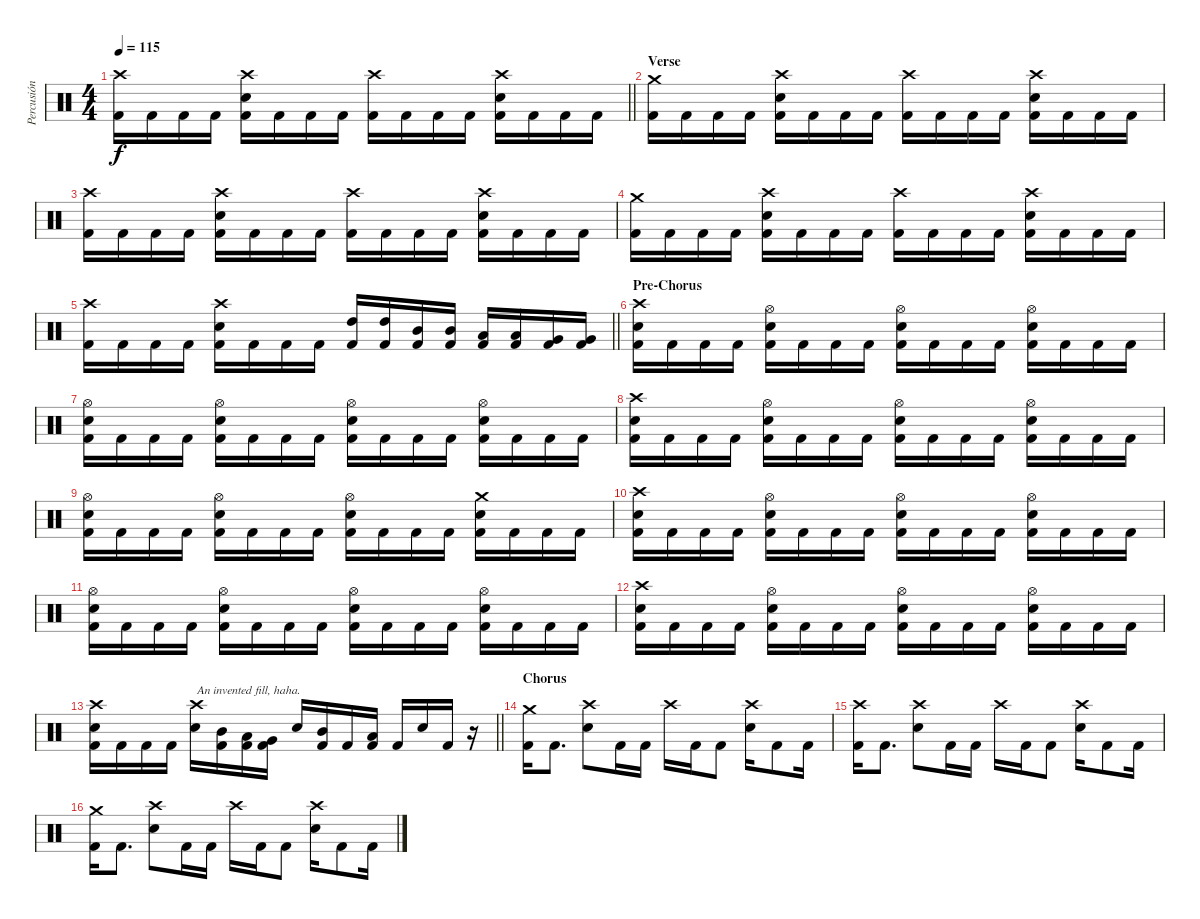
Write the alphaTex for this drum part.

\track ("Percusión" "Percusión") {instrument percussion}
\staff {score}
\articulation defaults
\ts (4 4)
\tempo 115
\clef neutral
\barLineRight lightlight
\ks c
("Crash high (hit)" "Kick (hit) 2").16{dy f} "Kick (hit) 2".16 "Kick (hit) 2".16 "Kick (hit) 2".16 ("Crash high (hit)" "Snare (hit) 2" "Kick (hit) 2").16 "Kick (hit) 2".16 "Kick (hit) 2".16 "Kick (hit) 2".16 ("Crash high (hit)" "Kick (hit) 2").16 "Kick (hit) 2".16 "Kick (hit) 2".16 "Kick (hit) 2".16 ("Crash high (hit)" "Snare (hit) 2" "Kick (hit) 2").16 "Kick (hit) 2".16 "Kick (hit) 2".16 "Kick (hit) 2".16 |
\section ("" "Verse")
("Crash medium (hit)" "Kick (hit) 2").16 "Kick (hit) 2".16 "Kick (hit) 2".16 "Kick (hit) 2".16 ("Crash high (hit)" "Snare (hit) 2" "Kick (hit) 2").16 "Kick (hit) 2".16 "Kick (hit) 2".16 "Kick (hit) 2".16 ("Crash high (hit)" "Kick (hit) 2").16 "Kick (hit) 2".16 "Kick (hit) 2".16 "Kick (hit) 2".16 ("Crash high (hit)" "Snare (hit) 2" "Kick (hit) 2").16 "Kick (hit) 2".16 "Kick (hit) 2".16 "Kick (hit) 2".16 |
("Crash high (hit)" "Kick (hit) 2").16 "Kick (hit) 2".16 "Kick (hit) 2".16 "Kick (hit) 2".16 ("Crash high (hit)" "Snare (hit) 2" "Kick (hit) 2").16 "Kick (hit) 2".16 "Kick (hit) 2".16 "Kick (hit) 2".16 ("Crash high (hit)" "Kick (hit) 2").16 "Kick (hit) 2".16 "Kick (hit) 2".16 "Kick (hit) 2".16 ("Crash high (hit)" "Snare (hit) 2" "Kick (hit) 2").16 "Kick (hit) 2".16 "Kick (hit) 2".16 "Kick (hit) 2".16 |
("Crash medium (hit)" "Kick (hit) 2").16 "Kick (hit) 2".16 "Kick (hit) 2".16 "Kick (hit) 2".16 ("Crash high (hit)" "Snare (hit) 2" "Kick (hit) 2").16 "Kick (hit) 2".16 "Kick (hit) 2".16 "Kick (hit) 2".16 ("Crash high (hit)" "Kick (hit) 2").16 "Kick (hit) 2".16 "Kick (hit) 2".16 "Kick (hit) 2".16 ("Crash high (hit)" "Snare (hit) 2" "Kick (hit) 2").16 "Kick (hit) 2".16 "Kick (hit) 2".16 "Kick (hit) 2".16 |
\barLineRight lightlight
("Crash high (hit)" "Kick (hit) 2").16 "Kick (hit) 2".16 "Kick (hit) 2".16 "Kick (hit) 2".16 ("Crash high (hit)" "Snare (hit) 2" "Kick (hit) 2").16 "Kick (hit) 2".16 "Kick (hit) 2".16 "Kick (hit) 2".16 ("High Tom (hit)" "Kick (hit) 2").16 ("High Tom (hit)" "Kick (hit) 2").16 ("Mid Tom (hit)" "Kick (hit) 2").16 ("Mid Tom (hit)" "Kick (hit) 2").16 ("Low Tom (hit)" "Kick (hit) 2").16 ("Low Tom (hit)" "Kick (hit) 2").16 ("Very Low Tom (hit)" "Kick (hit) 2").16 ("Very Low Tom (hit)" "Kick (hit) 2").16 |
\section ("" "Pre-Chorus")
("Crash high (hit)" "Snare (hit) 2" "Kick (hit) 2").16 "Kick (hit) 2".16 "Kick (hit) 2".16 "Kick (hit) 2".16 ("Hi-Hat (open)" "Snare (hit) 2" "Kick (hit) 2").16 "Kick (hit) 2".16 "Kick (hit) 2".16 "Kick (hit) 2".16 ("Hi-Hat (open)" "Snare (hit) 2" "Kick (hit) 2").16 "Kick (hit) 2".16 "Kick (hit) 2".16 "Kick (hit) 2".16 ("Hi-Hat (open)" "Snare (hit) 2" "Kick (hit) 2").16 "Kick (hit) 2".16 "Kick (hit) 2".16 "Kick (hit) 2".16 |
("Hi-Hat (open)" "Snare (hit) 2" "Kick (hit) 2").16 "Kick (hit) 2".16 "Kick (hit) 2".16 "Kick (hit) 2".16 ("Hi-Hat (open)" "Snare (hit) 2" "Kick (hit) 2").16 "Kick (hit) 2".16 "Kick (hit) 2".16 "Kick (hit) 2".16 ("Hi-Hat (open)" "Snare (hit) 2" "Kick (hit) 2").16 "Kick (hit) 2".16 "Kick (hit) 2".16 "Kick (hit) 2".16 ("Hi-Hat (open)" "Snare (hit) 2" "Kick (hit) 2").16 "Kick (hit) 2".16 "Kick (hit) 2".16 "Kick (hit) 2".16 |
("Crash high (hit)" "Snare (hit) 2" "Kick (hit) 2").16 "Kick (hit) 2".16 "Kick (hit) 2".16 "Kick (hit) 2".16 ("Hi-Hat (open)" "Snare (hit) 2" "Kick (hit) 2").16 "Kick (hit) 2".16 "Kick (hit) 2".16 "Kick (hit) 2".16 ("Hi-Hat (open)" "Snare (hit) 2" "Kick (hit) 2").16 "Kick (hit) 2".16 "Kick (hit) 2".16 "Kick (hit) 2".16 ("Hi-Hat (open)" "Snare (hit) 2" "Kick (hit) 2").16 "Kick (hit) 2".16 "Kick (hit) 2".16 "Kick (hit) 2".16 |
("Hi-Hat (open)" "Snare (hit) 2" "Kick (hit) 2").16 "Kick (hit) 2".16 "Kick (hit) 2".16 "Kick (hit) 2".16 ("Hi-Hat (open)" "Snare (hit) 2" "Kick (hit) 2").16 "Kick (hit) 2".16 "Kick (hit) 2".16 "Kick (hit) 2".16 ("Hi-Hat (open)" "Snare (hit) 2" "Kick (hit) 2").16 "Kick (hit) 2".16 "Kick (hit) 2".16 "Kick (hit) 2".16 ("Crash medium (hit)" "Snare (hit) 2" "Kick (hit) 2").16 "Kick (hit) 2".16 "Kick (hit) 2".16 "Kick (hit) 2".16 |
("Crash high (hit)" "Snare (hit) 2" "Kick (hit) 2").16 "Kick (hit) 2".16 "Kick (hit) 2".16 "Kick (hit) 2".16 ("Hi-Hat (open)" "Snare (hit) 2" "Kick (hit) 2").16 "Kick (hit) 2".16 "Kick (hit) 2".16 "Kick (hit) 2".16 ("Hi-Hat (open)" "Snare (hit) 2" "Kick (hit) 2").16 "Kick (hit) 2".16 "Kick (hit) 2".16 "Kick (hit) 2".16 ("Hi-Hat (open)" "Snare (hit) 2" "Kick (hit) 2").16 "Kick (hit) 2".16 "Kick (hit) 2".16 "Kick (hit) 2".16 |
("Hi-Hat (open)" "Snare (hit) 2" "Kick (hit) 2").16 "Kick (hit) 2".16 "Kick (hit) 2".16 "Kick (hit) 2".16 ("Hi-Hat (open)" "Snare (hit) 2" "Kick (hit) 2").16 "Kick (hit) 2".16 "Kick (hit) 2".16 "Kick (hit) 2".16 ("Hi-Hat (open)" "Snare (hit) 2" "Kick (hit) 2").16 "Kick (hit) 2".16 "Kick (hit) 2".16 "Kick (hit) 2".16 ("Hi-Hat (open)" "Snare (hit) 2" "Kick (hit) 2").16 "Kick (hit) 2".16 "Kick (hit) 2".16 "Kick (hit) 2".16 |
("Crash high (hit)" "Snare (hit) 2" "Kick (hit) 2").16 "Kick (hit) 2".16 "Kick (hit) 2".16 "Kick (hit) 2".16 ("Hi-Hat (open)" "Snare (hit) 2" "Kick (hit) 2").16 "Kick (hit) 2".16 "Kick (hit) 2".16 "Kick (hit) 2".16 ("Hi-Hat (open)" "Snare (hit) 2" "Kick (hit) 2").16 "Kick (hit) 2".16 "Kick (hit) 2".16 "Kick (hit) 2".16 ("Hi-Hat (open)" "Snare (hit) 2" "Kick (hit) 2").16 "Kick (hit) 2".16 "Kick (hit) 2".16 "Kick (hit) 2".16 |
\barLineRight lightlight
("Crash high (hit)" "Snare (hit) 2" "Kick (hit) 2").16 "Kick (hit) 2".16 "Kick (hit) 2".16 "Kick (hit) 2".16 ("Crash high (hit)" "Snare (hit) 2").16{txt "An invented fill, haha."} ("Mid Tom (hit)" "Kick (hit) 2").16 ("Low Tom (hit)" "Kick (hit) 2").16 ("Very Low Tom (hit)" "Kick (hit) 2").16 "Snare (hit) 2".16 ("Mid Tom (hit)" "Kick (hit) 2").16 "Kick (hit) 2".16 ("Low Tom (hit)" "Kick (hit) 2").16 "Kick (hit) 2".16 "Snare (hit) 2".16 "Kick (hit) 2".16 r.16 |
\section ("" "Chorus")
("Crash medium (hit)" "Kick (hit) 2").16 "Kick (hit) 2".8{d} ("Crash high (hit)" "Snare (hit) 2").8 "Kick (hit) 2".16 "Kick (hit) 2".16 "Crash high (hit)".16 "Kick (hit) 2".16 "Kick (hit) 2".8 ("Crash high (hit)" "Snare (hit) 2").16 "Kick (hit) 2".8 "Kick (hit) 2".16 |
("Crash high (hit)" "Kick (hit) 2").16 "Kick (hit) 2".8{d} ("Crash high (hit)" "Snare (hit) 2").8 "Kick (hit) 2".16 "Kick (hit) 2".16 "Crash high (hit)".16 "Kick (hit) 2".16 "Kick (hit) 2".8 ("Crash high (hit)" "Snare (hit) 2").16 "Kick (hit) 2".8 "Kick (hit) 2".16 |
("Crash medium (hit)" "Kick (hit) 2").16 "Kick (hit) 2".8{d} ("Crash high (hit)" "Snare (hit) 2").8 "Kick (hit) 2".16 "Kick (hit) 2".16 "Crash high (hit)".16 "Kick (hit) 2".16 "Kick (hit) 2".8 ("Crash high (hit)" "Snare (hit) 2").16 "Kick (hit) 2".8 "Kick (hit) 2".16
